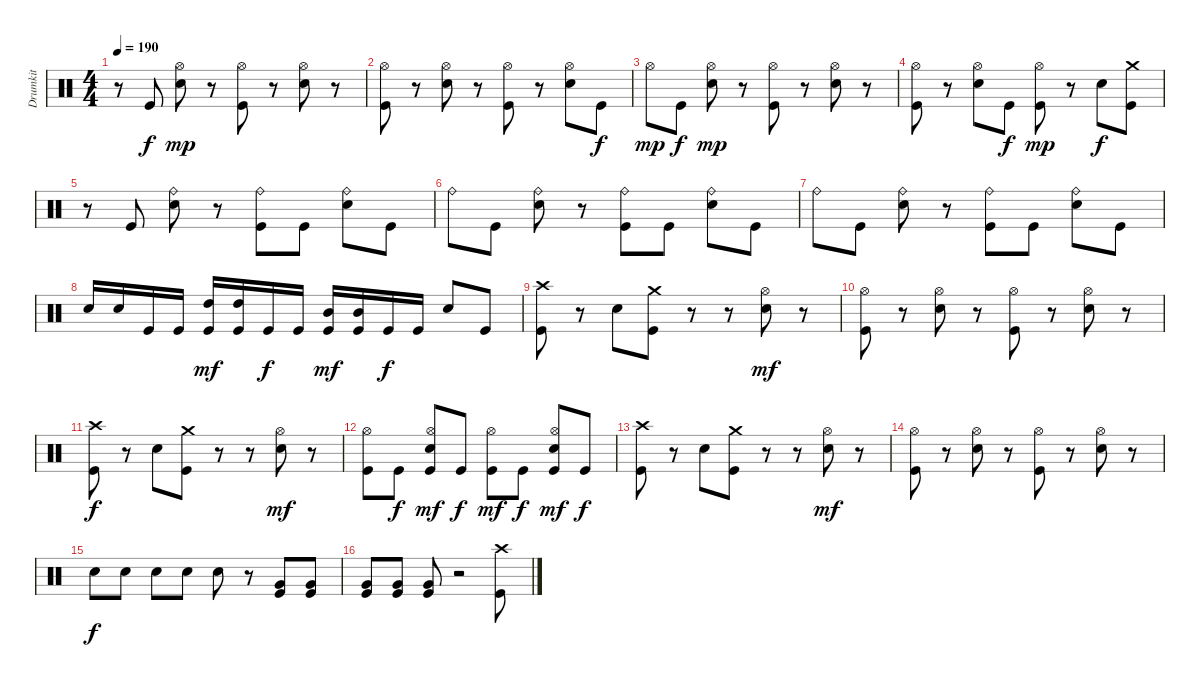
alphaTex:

\track ("Drumkit" "Drumkit") {instrument percussion}
\staff {score}
\articulation defaults
\ts (4 4)
\tempo 190
\clef neutral
\ks c
r.8{dy f} "Kick (hit)".8 ("Hi-Hat (open)" "Snare (hit) 2").8{dy mp} r.8 ("Hi-Hat (open)" "Kick (hit)").8 r.8 ("Hi-Hat (open)" "Snare (hit) 2").8 r.8 |
("Hi-Hat (open)" "Kick (hit)").8 r.8 ("Hi-Hat (open)" "Snare (hit) 2").8 r.8 ("Hi-Hat (open)" "Kick (hit)").8 r.8 ("Hi-Hat (open)" "Snare (hit) 2").8 "Kick (hit)".8{dy f} |
"Hi-Hat (open)".8{dy mp} "Kick (hit)".8{dy f} ("Hi-Hat (open)" "Snare (hit) 2").8{dy mp} r.8 ("Hi-Hat (open)" "Kick (hit)").8 r.8 ("Hi-Hat (open)" "Snare (hit) 2").8 r.8 |
("Hi-Hat (open)" "Kick (hit)").8 r.8 ("Hi-Hat (open)" "Snare (hit) 2").8 "Kick (hit)".8{dy f} ("Hi-Hat (open)" "Kick (hit)").8{dy mp} r.8 "Snare (hit) 2".8{dy f} ("Crash medium (hit)" "Kick (hit)").8 |
r.8 "Kick (hit)".8 ("Ride (bell)" "Snare (hit) 2").8 r.8 ("Ride (bell)" "Kick (hit)").8 "Kick (hit)".8 ("Ride (bell)" "Snare (hit) 2").8 "Kick (hit)".8 |
"Ride (bell)".8 "Kick (hit)".8 ("Ride (bell)" "Snare (hit) 2").8 r.8 ("Ride (bell)" "Kick (hit)").8 "Kick (hit)".8 ("Ride (bell)" "Snare (hit) 2").8 "Kick (hit)".8 |
"Ride (bell)".8 "Kick (hit)".8 ("Ride (bell)" "Snare (hit) 2").8 r.8 ("Ride (bell)" "Kick (hit)").8 "Kick (hit)".8 ("Ride (bell)" "Snare (hit) 2").8 "Kick (hit)".8 |
"Snare (hit) 2".16 "Snare (hit) 2".16 "Kick (hit)".16 "Kick (hit)".16 ("High Tom (hit)" "Kick (hit)").16{dy mf} ("High Tom (hit)" "Kick (hit)").16 "Kick (hit)".16{dy f} "Kick (hit)".16 ("Mid Tom (hit)" "Kick (hit)").16{dy mf} ("Mid Tom (hit)" "Kick (hit)").16 "Kick (hit)".16{dy f} "Kick (hit)".16 "Snare (hit) 2".8 "Kick (hit)".8 |
("Crash high (hit)" "Kick (hit)").8 r.8 "Snare (hit) 2".8 ("Crash medium (hit)" "Kick (hit)").8 r.8 r.8 ("Hi-Hat (open)" "Snare (hit) 2").8{dy mf} r.8 |
("Hi-Hat (open)" "Kick (hit)").8 r.8 ("Hi-Hat (open)" "Snare (hit) 2").8 r.8 ("Hi-Hat (open)" "Kick (hit)").8 r.8 ("Hi-Hat (open)" "Snare (hit) 2").8 r.8 |
("Crash high (hit)" "Kick (hit)").8{dy f} r.8 "Snare (hit) 2".8 ("Crash medium (hit)" "Kick (hit)").8 r.8 r.8 ("Hi-Hat (open)" "Snare (hit) 2").8{dy mf} r.8 |
("Hi-Hat (open)" "Kick (hit)").8 "Kick (hit)".8{dy f} ("Hi-Hat (open)" "Snare (hit) 2" "Kick (hit)").8{dy mf} "Kick (hit)".8{dy f} ("Hi-Hat (open)" "Kick (hit)").8{dy mf} "Kick (hit)".8{dy f} ("Hi-Hat (open)" "Snare (hit) 2" "Kick (hit)").8{dy mf} "Kick (hit)".8{dy f} |
("Crash high (hit)" "Kick (hit)").8 r.8 "Snare (hit) 2".8 ("Crash medium (hit)" "Kick (hit)").8 r.8 r.8 ("Hi-Hat (open)" "Snare (hit) 2").8{dy mf} r.8 |
("Hi-Hat (open)" "Kick (hit)").8 r.8 ("Hi-Hat (open)" "Snare (hit) 2").8 r.8 ("Hi-Hat (open)" "Kick (hit)").8 r.8 ("Hi-Hat (open)" "Snare (hit) 2").8 r.8 |
"Snare (hit) 2".8{dy f} "Snare (hit) 2".8 "Snare (hit) 2".8 "Snare (hit) 2".8 "Snare (hit) 2".8 r.8 ("Kick (hit)" "Very Low Tom (hit)").8 ("Kick (hit)" "Very Low Tom (hit)").8 |
("Kick (hit)" "Very Low Tom (hit)").8 ("Kick (hit)" "Very Low Tom (hit)").8 ("Kick (hit)" "Very Low Tom (hit)").8 r.2 ("Crash high (hit)" "Kick (hit)").8
